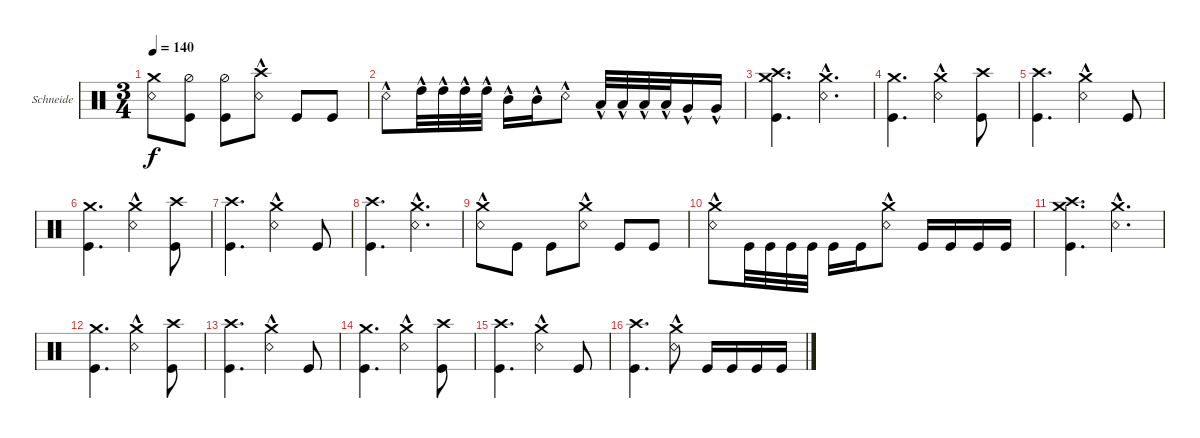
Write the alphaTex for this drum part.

\bracketExtendMode groupsimilarinstruments
\firstSystemTrackNameOrientation horizontal
\otherSystemsTrackNameOrientation horizontal
\track ("Christoph \"Doom\" Schneider" "Schneide") {instrument percussion}
\staff {score}
\articulation defaults
\ts (3 4)
\tempo 140
\clef neutral
\ks c
("Crash medium (hit)" "Snare (rim shot)").8{dy f} ("Hi-Hat (half)" "Kick (hit)").8 ("Hi-Hat (half)" "Kick (hit)").8 ("Crash high (hit)" "Snare (rim shot)"{hac}).8 "Kick (hit)".8 "Kick (hit)".8 |
"Snare (rim shot)"{hac}.8 "High Tom (hit)"{hac}.32 "High Tom (hit)"{hac}.32 "High Tom (hit)"{hac}.32 "High Tom (hit)"{hac}.32 "Mid Tom (hit)"{hac}.16 "Mid Tom (hit)"{hac}.16 "Snare (rim shot)"{hac}.8 "Low Tom (hit)"{hac}.32 "Low Tom (hit)"{hac}.32 "Low Tom (hit)"{hac}.32 "Low Tom (hit)"{hac}.32 "Very Low Tom (hit)"{hac}.16 "Very Low Tom (hit)"{hac}.16 |
("Crash medium (hit)" "Kick (hit)" "Crash high (hit)").4{d} ("Crash medium (hit)" "Snare (rim shot)"{hac}).4{d} |
("Crash medium (hit)" "Kick (hit)").4{d} ("Crash medium (hit)" "Snare (rim shot)"{hac}).4 ("Crash high (hit)" "Kick (hit)").8 |
("Kick (hit)" "Crash high (hit)").4{d} ("Crash medium (hit)" "Snare (rim shot)"{hac}).4 "Kick (hit)".8 |
("Crash medium (hit)" "Kick (hit)").4{d} ("Crash medium (hit)" "Snare (rim shot)"{hac}).4 ("Crash high (hit)" "Kick (hit)").8 |
("Kick (hit)" "Crash high (hit)").4{d} ("Crash medium (hit)" "Snare (rim shot)"{hac}).4 "Kick (hit)".8 |
("Kick (hit)" "Crash high (hit)").4{d} ("Crash medium (hit)" "Snare (rim shot)"{hac}).4{d} |
("Crash medium (hit)" "Snare (rim shot)"{hac}).8 "Kick (hit)".8 "Kick (hit)".8 ("Crash medium (hit)" "Snare (rim shot)"{hac}).8 "Kick (hit)".8 "Kick (hit)".8 |
("Crash medium (hit)" "Snare (rim shot)"{hac}).8 "Kick (hit)".32 "Kick (hit)".32 "Kick (hit)".32 "Kick (hit)".32 "Kick (hit)".16 "Kick (hit)".16 ("Crash medium (hit)" "Snare (rim shot)"{hac}).8 "Kick (hit)".16 "Kick (hit)".16 "Kick (hit)".16 "Kick (hit)".16 |
("Crash medium (hit)" "Kick (hit)" "Crash high (hit)").4{d} ("Crash medium (hit)" "Snare (rim shot)"{hac}).4{d} |
("Crash medium (hit)" "Kick (hit)").4{d} ("Crash medium (hit)" "Snare (rim shot)"{hac}).4 ("Crash high (hit)" "Kick (hit)").8 |
("Kick (hit)" "Crash high (hit)").4{d} ("Crash medium (hit)" "Snare (rim shot)"{hac}).4 "Kick (hit)".8 |
("Crash medium (hit)" "Kick (hit)").4{d} ("Crash medium (hit)" "Snare (rim shot)"{hac}).4 ("Crash high (hit)" "Kick (hit)").8 |
("Kick (hit)" "Crash high (hit)").4{d} ("Crash medium (hit)" "Snare (rim shot)"{hac}).4 "Kick (hit)".8 |
("Kick (hit)" "Crash high (hit)").4{d} ("Crash medium (hit)" "Snare (rim shot)"{hac}).8 "Kick (hit)".16 "Kick (hit)".16 "Kick (hit)".16 "Kick (hit)".16
